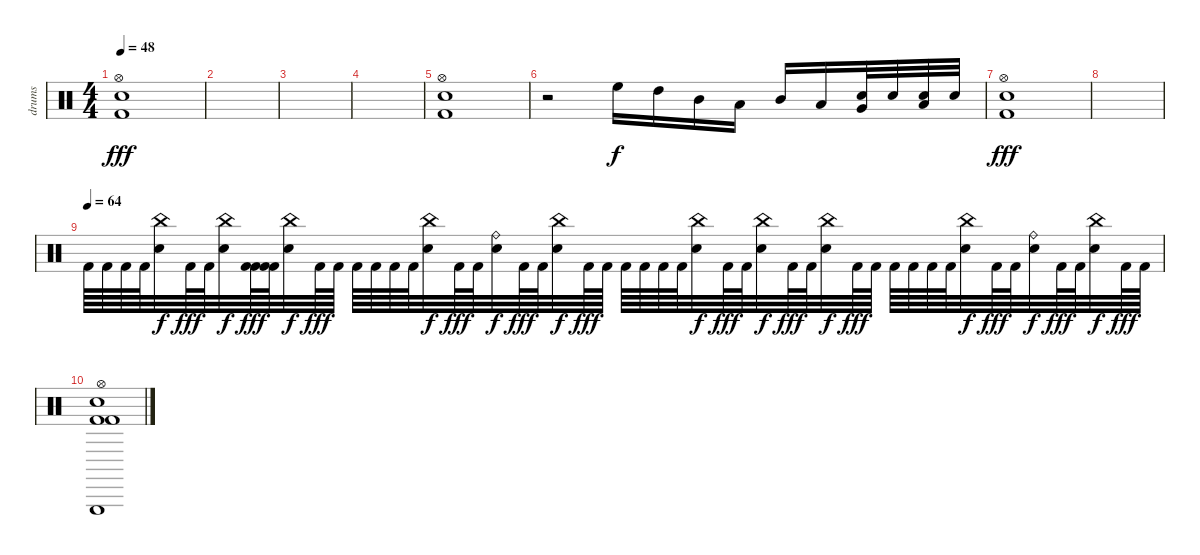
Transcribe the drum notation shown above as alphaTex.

\track ("drums" "drums") {instrument percussion}
\staff {score}
\articulation defaults
\ts (4 4)
\tempo 48
\clef neutral
\ks c
("Kick (hit) 2" "Snare (hit) 2" "Hi-Hat (open)").1{dy fff} |
|
|
|
("Kick (hit) 2" "Snare (hit) 2" "Hi-Hat (open)").1 |
r.2 "High Floor Tom (hit)".16{dy f} "High Tom (hit)".16 "Mid Tom (hit)".16 "Low Tom (hit)".16 "Mid Tom (hit)".16 "Low Tom (hit)".16 ("Electric Snare (hit)" "Very Low Tom (hit)").32 "Electric Snare (hit)".32 ("Electric Snare (hit)" "Low Floor Tom (hit)").32 "Electric Snare (hit)".32 |
("Kick (hit) 2" "Snare (hit) 2" "Hi-Hat (open)").1{dy fff} |
|
\tempo (64)
"Kick (hit) 2".64 "Kick (hit) 2".64 "Kick (hit) 2".64 "Kick (hit) 2".64 ("Electric Snare (hit)" "China (hit)").32{dy f} "Kick (hit) 2".64{dy fff} "Kick (hit) 2".64 ("Electric Snare (hit)" "China (hit)").32{dy f} ("Kick (hit) 2" "Kick (hit) 2").64{dy fff} ("Kick (hit) 2" "Kick (hit) 2").64 ("Electric Snare (hit)" "China (hit)").32{dy f} "Kick (hit) 2".64{dy fff} "Kick (hit) 2".64 "Kick (hit) 2".64 "Kick (hit) 2".64 "Kick (hit) 2".64 "Kick (hit) 2".64 ("Electric Snare (hit)" "China (hit)").32{dy f} "Kick (hit) 2".64{dy fff} "Kick (hit) 2".64 ("Electric Snare (hit)" "Ride (bell)").32{dy f} "Kick (hit) 2".64{dy fff} "Kick (hit) 2".64 ("Electric Snare (hit)" "China (hit)").32{dy f} "Kick (hit) 2".64{dy fff} "Kick (hit) 2".64 "Kick (hit) 2".64 "Kick (hit) 2".64 "Kick (hit) 2".64 "Kick (hit) 2".64 ("Electric Snare (hit)" "China (hit)").32{dy f} "Kick (hit) 2".64{dy fff} "Kick (hit) 2".64 ("Electric Snare (hit)" "China (hit)").32{dy f} "Kick (hit) 2".64{dy fff} "Kick (hit) 2".64 ("Electric Snare (hit)" "China (hit)").32{dy f} "Kick (hit) 2".64{dy fff} "Kick (hit) 2".64 "Kick (hit) 2".64 "Kick (hit) 2".64 "Kick (hit) 2".64 "Kick (hit) 2".64 ("Electric Snare (hit)" "China (hit)").32{dy f} "Kick (hit) 2".64{dy fff} "Kick (hit) 2".64 ("Electric Snare (hit)" "Ride (bell)").32{dy f} "Kick (hit) 2".64{dy fff} "Kick (hit) 2".64 ("Electric Snare (hit)" "China (hit)").32{dy f} "Kick (hit) 2".64{dy fff} "Kick (hit) 2".64 |
("Kick (hit) 2" "Kick (hit) 2" "Snare (hit) 2" "Triangle (hit)" "Hi-Hat (open)").1
